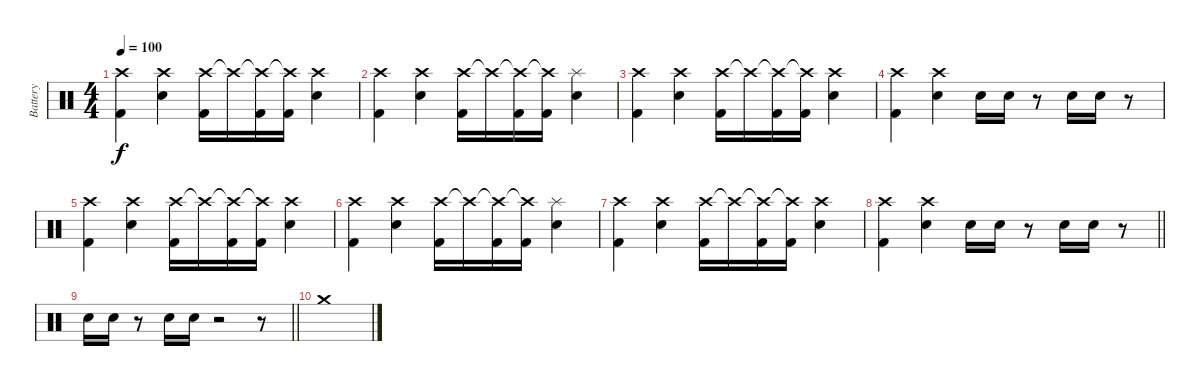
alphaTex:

\track ("Battery" "Battery") {instrument percussion}
\staff {score}
\articulation defaults
\ts (4 4)
\tempo 100
\clef neutral
\ks c
("Crash high (hit)" "Kick (hit) 2").4{dy f} ("Crash high (hit)" "Snare (hit) 2").4 ("Crash high (hit)" "Kick (hit) 2").16 "Crash high (hit)"{t}.16 ("Crash high (hit)"{t} "Kick (hit) 2").16 ("Crash high (hit)"{t} "Kick (hit) 2").16 ("Crash high (hit)" "Snare (hit) 2").4 |
("Crash high (hit)" "Kick (hit) 2").4 ("Crash high (hit)" "Snare (hit) 2").4 ("Crash high (hit)" "Kick (hit) 2").16 "Crash high (hit)"{t}.16 ("Crash high (hit)"{t} "Kick (hit) 2").16 ("Crash high (hit)"{t} "Kick (hit) 2").16 ("Splash (hit)" "Snare (hit) 2").4 |
("Crash high (hit)" "Kick (hit) 2").4 ("Crash high (hit)" "Snare (hit) 2").4 ("Crash high (hit)" "Kick (hit) 2").16 "Crash high (hit)"{t}.16 ("Crash high (hit)"{t} "Kick (hit) 2").16 ("Crash high (hit)"{t} "Kick (hit) 2").16 ("Crash high (hit)" "Snare (hit) 2").4 |
("Crash high (hit)" "Kick (hit) 2").4 ("Crash high (hit)" "Snare (hit) 2").4 "Snare (hit) 2".16 "Snare (hit) 2".16 r.8 "Snare (hit) 2".16 "Snare (hit) 2".16 r.8 |
("Crash high (hit)" "Kick (hit) 2").4 ("Crash high (hit)" "Snare (hit) 2").4 ("Crash high (hit)" "Kick (hit) 2").16 "Crash high (hit)"{t}.16 ("Crash high (hit)"{t} "Kick (hit) 2").16 ("Crash high (hit)"{t} "Kick (hit) 2").16 ("Crash high (hit)" "Snare (hit) 2").4 |
("Crash high (hit)" "Kick (hit) 2").4 ("Crash high (hit)" "Snare (hit) 2").4 ("Crash high (hit)" "Kick (hit) 2").16 "Crash high (hit)"{t}.16 ("Crash high (hit)"{t} "Kick (hit) 2").16 ("Crash high (hit)"{t} "Kick (hit) 2").16 ("Splash (hit)" "Snare (hit) 2").4 |
("Crash high (hit)" "Kick (hit) 2").4 ("Crash high (hit)" "Snare (hit) 2").4 ("Crash high (hit)" "Kick (hit) 2").16 "Crash high (hit)"{t}.16 ("Crash high (hit)"{t} "Kick (hit) 2").16 ("Crash high (hit)"{t} "Kick (hit) 2").16 ("Crash high (hit)" "Snare (hit) 2").4 |
\barLineRight lightlight
("Crash high (hit)" "Kick (hit) 2").4 ("Crash high (hit)" "Snare (hit) 2").4 "Snare (hit) 2".16 "Snare (hit) 2".16 r.8 "Snare (hit) 2".16 "Snare (hit) 2".16 r.8 |
\barLineRight lightlight "Snare (hit) 2".16 "Snare (hit) 2".16
r.8 "Snare (hit) 2".16 "Snare (hit) 2".16 r.2 r.8 |
"Crash medium (hit)".1
